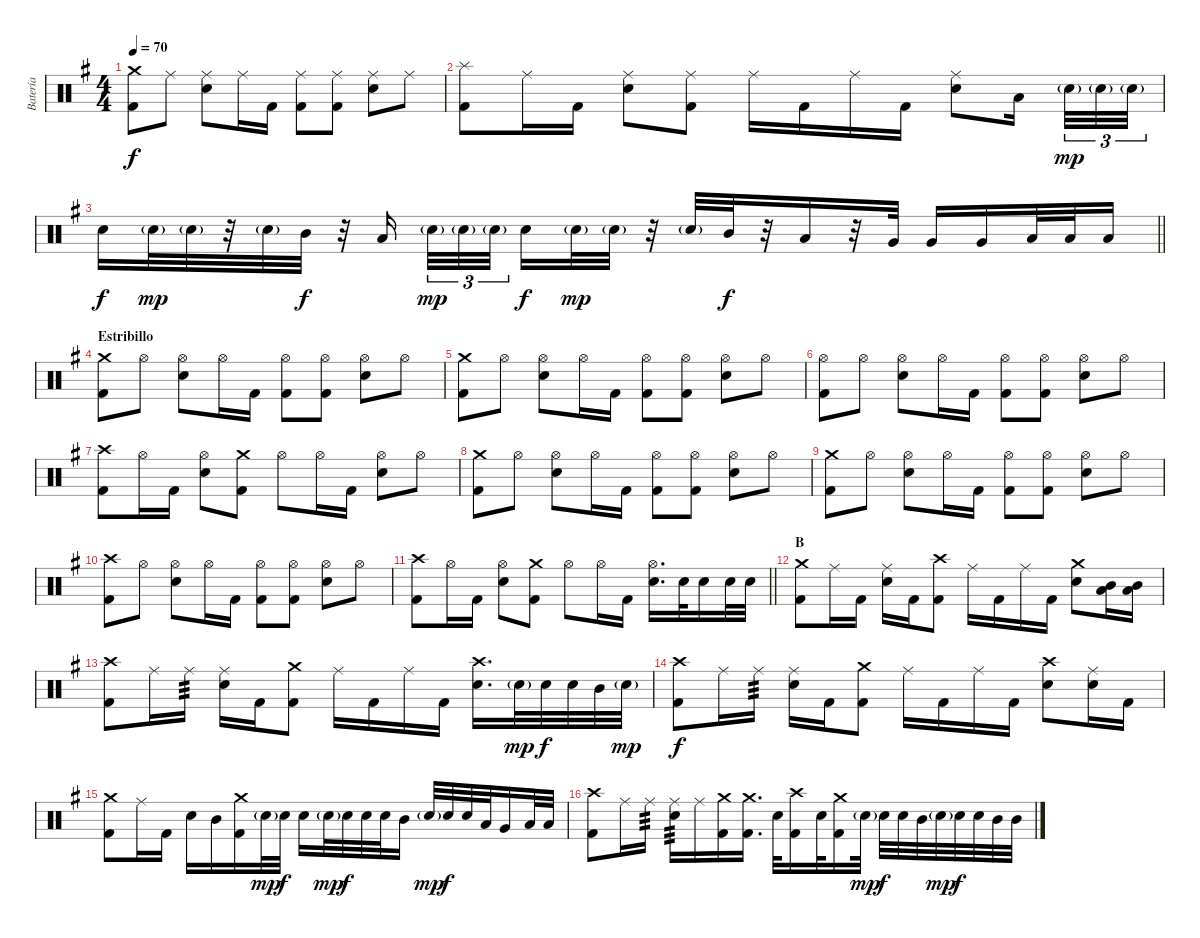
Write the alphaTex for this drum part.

\track ("Batería" "Batería") {instrument percussion}
\staff {score}
\articulation defaults
\ts (4 4)
\tempo 70
\clef neutral
\ks g
("Crash medium (hit)" "Kick (hit) 2").8{dy f} "Ride (middle)".8 ("Ride (middle)" "Electric Snare (hit)").8 "Ride (middle)".16 "Kick (hit) 2".16 ("Ride (middle)" "Kick (hit) 2").8 ("Ride (middle)" "Kick (hit) 2").8 ("Ride (middle)" "Electric Snare (hit)").8 "Ride (middle)".8 |
("Splash (hit)" "Kick (hit) 2").8 "Ride (middle)".16 "Kick (hit) 2".16 ("Ride (middle)" "Electric Snare (hit)").8 ("Ride (middle)" "Kick (hit) 2").8 "Ride (middle)".16 "Kick (hit) 2".16 "Ride (middle)".16 "Kick (hit) 2".16 ("Ride (middle)" "Electric Snare (hit)").8 "Low Tom (hit)".16{beam splitsecondary} "Electric Snare (hit)"{g}.32{tu (3 2) dy mp} "Electric Snare (hit)"{g}.32{tu (3 2)} "Electric Snare (hit)"{g}.32{tu (3 2)} |
\barLineRight lightlight "Electric Snare (hit)".16{dy f} "Electric Snare (hit)"{g}.32{dy mp} "Electric Snare (hit)"{g}.32
r.32 "Electric Snare (hit)"{g}.32 "Mid Tom (hit)".32{dy f} r.32 "Low Tom (hit)".16{beam splitsecondary} "Electric Snare (hit)"{g}.32{tu (3 2) dy mp} "Electric Snare (hit)"{g}.32{tu (3 2)} "Electric Snare (hit)"{g}.32{tu (3 2) beam splitsecondary} "Electric Snare (hit)".16{dy f} "Electric Snare (hit)"{g}.32{dy mp} "Electric Snare (hit)"{g}.32 r.32 "Electric Snare (hit)"{g}.32 "Mid Tom (hit)".32{dy f} r.32 "Low Tom (hit)".16 r.32 "Very Low Tom (hit)".32 "Very Low Tom (hit)".16 "Very Low Tom (hit)".16 "Low Floor Tom (hit)".32 "Low Floor Tom (hit)".32 "Low Floor Tom (hit)".16 |
\section ("" "Estribillo")
("Crash medium (hit)" "Kick (hit) 2").8 "Hi-Hat (open)".8 ("Hi-Hat (open)" "Electric Snare (hit)").8 "Hi-Hat (open)".16 "Kick (hit) 2".16 ("Hi-Hat (open)" "Kick (hit) 2").8 ("Hi-Hat (open)" "Kick (hit) 2").8 ("Hi-Hat (open)" "Electric Snare (hit)").8 "Hi-Hat (open)".8 |
("Crash medium (hit)" "Kick (hit) 2").8 "Hi-Hat (open)".8 ("Hi-Hat (open)" "Electric Snare (hit)").8 "Hi-Hat (open)".16 "Kick (hit) 2".16 ("Hi-Hat (open)" "Kick (hit) 2").8 ("Hi-Hat (open)" "Kick (hit) 2").8 ("Hi-Hat (open)" "Electric Snare (hit)").8 "Hi-Hat (open)".8 |
("Hi-Hat (open)" "Kick (hit) 2").8 "Hi-Hat (open)".8 ("Hi-Hat (open)" "Electric Snare (hit)").8 "Hi-Hat (open)".16 "Kick (hit) 2".16 ("Hi-Hat (open)" "Kick (hit) 2").8 ("Hi-Hat (open)" "Kick (hit) 2").8 ("Hi-Hat (open)" "Electric Snare (hit)").8 "Hi-Hat (open)".8 |
("Crash high (hit)" "Kick (hit) 2").8 "Hi-Hat (open)".16 "Kick (hit) 2".16 ("Hi-Hat (open)" "Electric Snare (hit)").8 ("Crash medium (hit)" "Kick (hit) 2").8 "Hi-Hat (open)".8 "Hi-Hat (open)".16 "Kick (hit) 2".16 ("Hi-Hat (open)" "Electric Snare (hit)").8 "Hi-Hat (open)".8 |
("Crash medium (hit)" "Kick (hit) 2").8 "Hi-Hat (open)".8 ("Hi-Hat (open)" "Electric Snare (hit)").8 "Hi-Hat (open)".16 "Kick (hit) 2".16 ("Hi-Hat (open)" "Kick (hit) 2").8 ("Hi-Hat (open)" "Kick (hit) 2").8 ("Hi-Hat (open)" "Electric Snare (hit)").8 "Hi-Hat (open)".8 |
("Crash medium (hit)" "Kick (hit) 2").8 "Hi-Hat (open)".8 ("Hi-Hat (open)" "Electric Snare (hit)").8 "Hi-Hat (open)".16 "Kick (hit) 2".16 ("Hi-Hat (open)" "Kick (hit) 2").8 ("Hi-Hat (open)" "Kick (hit) 2").8 ("Hi-Hat (open)" "Electric Snare (hit)").8 "Hi-Hat (open)".8 |
("Crash high (hit)" "Kick (hit) 2").8 "Hi-Hat (open)".8 ("Hi-Hat (open)" "Electric Snare (hit)").8 "Hi-Hat (open)".16 "Kick (hit) 2".16 ("Hi-Hat (open)" "Kick (hit) 2").8 ("Hi-Hat (open)" "Kick (hit) 2").8 ("Hi-Hat (open)" "Electric Snare (hit)").8 "Hi-Hat (open)".8 |
\barLineRight lightlight
("Crash high (hit)" "Kick (hit) 2").8 "Hi-Hat (open)".16 "Kick (hit) 2".16 ("Hi-Hat (open)" "Electric Snare (hit)").8 ("Crash medium (hit)" "Kick (hit) 2").8 "Hi-Hat (open)".8 "Hi-Hat (open)".16 "Kick (hit) 2".16 ("Hi-Hat (open)" "Electric Snare (hit)").16{d} "Electric Snare (hit)".32 "Electric Snare (hit)".16 "Electric Snare (hit)".32 "Electric Snare (hit)".32 |
\section ("" "B")
("Crash medium (hit)" "Kick (hit) 2").8 "Ride (middle)".16 "Kick (hit) 2".16 ("Ride (middle)" "Electric Snare (hit)").16 "Kick (hit) 2".16 ("Crash high (hit)" "Kick (hit) 2").8 "Ride (middle)".16 "Kick (hit) 2".16 "Ride (middle)".16 "Kick (hit) 2".16 ("Crash medium (hit)" "Electric Snare (hit)").8 ("Mid Tom (hit)" "Low Tom (hit)").16 ("Mid Tom (hit)" "Low Tom (hit)").16 |
("Crash high (hit)" "Kick (hit) 2").8 "Ride (middle)".16 "Ride (middle)".16{tp 3} ("Ride (middle)" "Electric Snare (hit)").16 "Kick (hit) 2".16 ("Crash medium (hit)" "Kick (hit) 2").8 "Ride (middle)".16 "Kick (hit) 2".16 "Ride (middle)".16 "Kick (hit) 2".16 ("Crash high (hit)" "Electric Snare (hit)").16{d} "Electric Snare (hit)"{g}.32{dy mp} "Electric Snare (hit)".32{dy f} "Electric Snare (hit)".32 "Mid Tom (hit)".32 "Electric Snare (hit)"{g}.32{dy mp} |
("Crash high (hit)" "Kick (hit) 2").8{dy f} "Ride (middle)".16 "Ride (middle)".16{tp 3} ("Ride (middle)" "Electric Snare (hit)").16 "Kick (hit) 2".16 ("Crash medium (hit)" "Kick (hit) 2").8 "Ride (middle)".16 "Kick (hit) 2".16 "Ride (middle)".16 "Kick (hit) 2".16 ("Crash high (hit)" "Electric Snare (hit)").8 ("Ride (middle)" "Electric Snare (hit)").16 "Kick (hit) 2".16 |
("Crash medium (hit)" "Kick (hit) 2").8 "Ride (middle)".16 "Kick (hit) 2".16 "Electric Snare (hit)".16 "Mid Tom (hit)".16 ("Crash medium (hit)" "Kick (hit) 2").16 "Electric Snare (hit)"{g}.32{dy mp} "Electric Snare (hit)".32{dy f} "Electric Snare (hit)".16 "Electric Snare (hit)"{g}.32{dy mp} "Electric Snare (hit)".32{dy f} "Electric Snare (hit)".32 "Electric Snare (hit)".32 "Mid Tom (hit)".16 "Electric Snare (hit)"{g}.32{dy mp} "Electric Snare (hit)".32{dy f} "Electric Snare (hit)".32 "Low Tom (hit)".32 "Very Low Tom (hit)".16 "Low Floor Tom (hit)".32 "Low Floor Tom (hit)".32 |
("Crash high (hit)" "Kick (hit) 2").8 "Ride (middle)".16 "Ride (middle)".16{tp 3} ("Ride (middle)" "Electric Snare (hit)").16{tp 3} "Ride (middle)".16 ("Crash medium (hit)" "Kick (hit) 2").16 ("Crash medium (hit)" "Kick (hit) 2").16{d} "Electric Snare (hit)".32 ("Crash high (hit)" "Kick (hit) 2").16 "Electric Snare (hit)".32 ("Crash medium (hit)" "Kick (hit) 2").16 "Electric Snare (hit)"{g}.32{dy mp} "Electric Snare (hit)".32{dy f} "Electric Snare (hit)".32 "Mid Tom (hit)".32 "Electric Snare (hit)"{g}.32{dy mp} "Electric Snare (hit)".32{dy f} "Electric Snare (hit)".32 "Mid Tom (hit)".32 "Mid Tom (hit)".32
